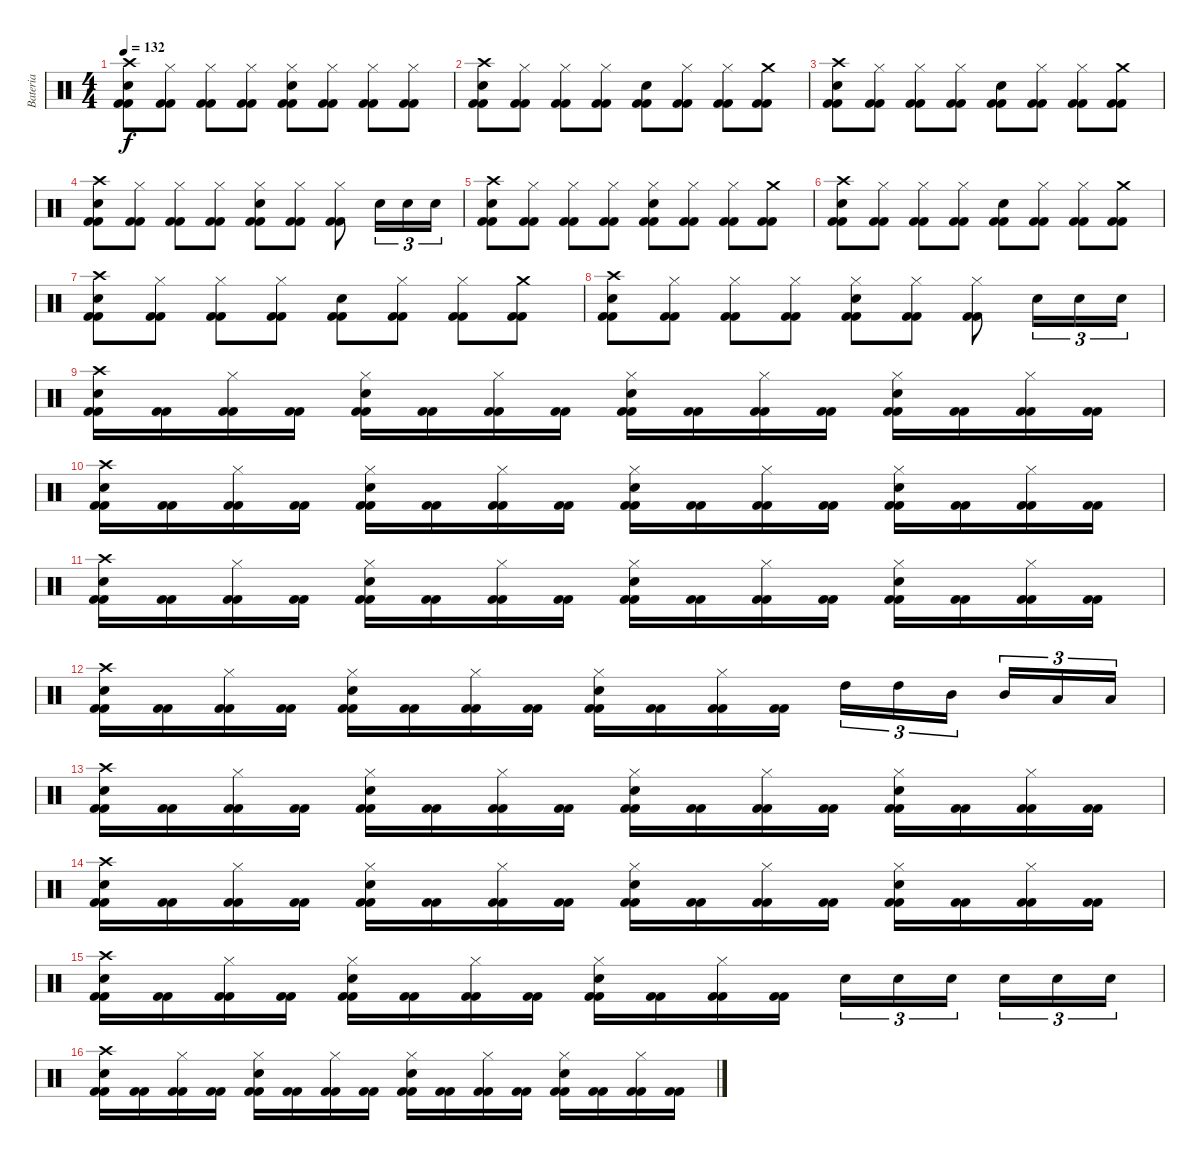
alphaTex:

\track ("Bateria" "Bateria") {instrument percussion}
\staff {score}
\articulation defaults
\ts (4 4)
\tempo 132
\clef neutral
\ks c
("Kick (hit) 2" "Kick (hit) 2" "Snare (hit) 2" "Crash high (hit)").8{dy f} ("Kick (hit) 2" "Kick (hit) 2" "Hi-Hat (closed)").8 ("Kick (hit) 2" "Kick (hit) 2" "Hi-Hat (closed)").8 ("Kick (hit) 2" "Kick (hit) 2" "Hi-Hat (closed)").8 ("Kick (hit) 2" "Kick (hit) 2" "Hi-Hat (closed)" "Snare (hit) 2").8 ("Kick (hit) 2" "Kick (hit) 2" "Hi-Hat (closed)").8 ("Kick (hit) 2" "Kick (hit) 2" "Hi-Hat (closed)").8 ("Kick (hit) 2" "Kick (hit) 2" "Hi-Hat (closed)").8 |
("Kick (hit) 2" "Kick (hit) 2" "Snare (hit) 2" "Crash high (hit)").8 ("Kick (hit) 2" "Kick (hit) 2" "Hi-Hat (closed)").8 ("Kick (hit) 2" "Kick (hit) 2" "Hi-Hat (closed)").8 ("Kick (hit) 2" "Kick (hit) 2" "Hi-Hat (closed)").8 ("Kick (hit) 2" "Kick (hit) 2" "Snare (hit) 2").8 ("Kick (hit) 2" "Kick (hit) 2" "Hi-Hat (closed)").8 ("Kick (hit) 2" "Kick (hit) 2" "Hi-Hat (closed)").8 ("Kick (hit) 2" "Kick (hit) 2" "Crash medium (hit)").8 |
("Kick (hit) 2" "Kick (hit) 2" "Snare (hit) 2" "Crash high (hit)").8 ("Kick (hit) 2" "Kick (hit) 2" "Hi-Hat (closed)").8 ("Kick (hit) 2" "Kick (hit) 2" "Hi-Hat (closed)").8 ("Kick (hit) 2" "Kick (hit) 2" "Hi-Hat (closed)").8 ("Kick (hit) 2" "Kick (hit) 2" "Snare (hit) 2").8 ("Kick (hit) 2" "Kick (hit) 2" "Hi-Hat (closed)").8 ("Kick (hit) 2" "Kick (hit) 2" "Hi-Hat (closed)").8 ("Kick (hit) 2" "Kick (hit) 2" "Crash medium (hit)").8 |
("Kick (hit) 2" "Kick (hit) 2" "Snare (hit) 2" "Crash high (hit)").8 ("Kick (hit) 2" "Kick (hit) 2" "Hi-Hat (closed)").8 ("Kick (hit) 2" "Kick (hit) 2" "Hi-Hat (closed)").8 ("Kick (hit) 2" "Kick (hit) 2" "Hi-Hat (closed)").8 ("Kick (hit) 2" "Kick (hit) 2" "Hi-Hat (closed)" "Snare (hit) 2").8 ("Kick (hit) 2" "Kick (hit) 2" "Hi-Hat (closed)").8 ("Kick (hit) 2" "Kick (hit) 2" "Hi-Hat (closed)").8 "Snare (hit) 2".16{tu (3 2)} "Snare (hit) 2".16{tu (3 2)} "Snare (hit) 2".16{tu (3 2)} |
("Kick (hit) 2" "Kick (hit) 2" "Snare (hit) 2" "Crash high (hit)").8 ("Kick (hit) 2" "Kick (hit) 2" "Hi-Hat (closed)").8 ("Kick (hit) 2" "Kick (hit) 2" "Hi-Hat (closed)").8 ("Kick (hit) 2" "Kick (hit) 2" "Hi-Hat (closed)").8 ("Kick (hit) 2" "Kick (hit) 2" "Hi-Hat (closed)" "Snare (hit) 2").8 ("Kick (hit) 2" "Kick (hit) 2" "Hi-Hat (closed)").8 ("Kick (hit) 2" "Kick (hit) 2" "Hi-Hat (closed)").8 ("Kick (hit) 2" "Kick (hit) 2" "Crash medium (hit)").8 |
("Kick (hit) 2" "Kick (hit) 2" "Snare (hit) 2" "Crash high (hit)").8 ("Kick (hit) 2" "Kick (hit) 2" "Hi-Hat (closed)").8 ("Kick (hit) 2" "Kick (hit) 2" "Hi-Hat (closed)").8 ("Kick (hit) 2" "Kick (hit) 2" "Hi-Hat (closed)").8 ("Kick (hit) 2" "Kick (hit) 2" "Snare (hit) 2").8 ("Kick (hit) 2" "Kick (hit) 2" "Hi-Hat (closed)").8 ("Kick (hit) 2" "Kick (hit) 2" "Hi-Hat (closed)").8 ("Kick (hit) 2" "Kick (hit) 2" "Crash medium (hit)").8 |
("Kick (hit) 2" "Kick (hit) 2" "Snare (hit) 2" "Crash high (hit)").8 ("Kick (hit) 2" "Kick (hit) 2" "Hi-Hat (closed)").8 ("Kick (hit) 2" "Kick (hit) 2" "Hi-Hat (closed)").8 ("Kick (hit) 2" "Kick (hit) 2" "Hi-Hat (closed)").8 ("Kick (hit) 2" "Kick (hit) 2" "Snare (hit) 2").8 ("Kick (hit) 2" "Kick (hit) 2" "Hi-Hat (closed)").8 ("Kick (hit) 2" "Kick (hit) 2" "Hi-Hat (closed)").8 ("Kick (hit) 2" "Kick (hit) 2" "Crash medium (hit)").8 |
("Kick (hit) 2" "Kick (hit) 2" "Snare (hit) 2" "Crash high (hit)").8 ("Kick (hit) 2" "Kick (hit) 2" "Hi-Hat (closed)").8 ("Kick (hit) 2" "Kick (hit) 2" "Hi-Hat (closed)").8 ("Kick (hit) 2" "Kick (hit) 2" "Hi-Hat (closed)").8 ("Kick (hit) 2" "Kick (hit) 2" "Hi-Hat (closed)" "Snare (hit) 2").8 ("Kick (hit) 2" "Kick (hit) 2" "Hi-Hat (closed)").8 ("Kick (hit) 2" "Kick (hit) 2" "Hi-Hat (closed)").8 "Snare (hit) 2".16{tu (3 2)} "Snare (hit) 2".16{tu (3 2)} "Snare (hit) 2".16{tu (3 2)} |
("Kick (hit) 2" "Kick (hit) 2" "Snare (hit) 2" "Crash high (hit)").16 ("Kick (hit) 2" "Kick (hit) 2").16 ("Kick (hit) 2" "Kick (hit) 2" "Hi-Hat (closed)").16 ("Kick (hit) 2" "Kick (hit) 2").16 ("Kick (hit) 2" "Kick (hit) 2" "Snare (hit) 2" "Hi-Hat (closed)").16 ("Kick (hit) 2" "Kick (hit) 2").16 ("Kick (hit) 2" "Kick (hit) 2" "Hi-Hat (closed)").16 ("Kick (hit) 2" "Kick (hit) 2").16 ("Kick (hit) 2" "Kick (hit) 2" "Snare (hit) 2" "Hi-Hat (closed)").16 ("Kick (hit) 2" "Kick (hit) 2").16 ("Kick (hit) 2" "Kick (hit) 2" "Hi-Hat (closed)").16 ("Kick (hit) 2" "Kick (hit) 2").16 ("Kick (hit) 2" "Kick (hit) 2" "Snare (hit) 2" "Hi-Hat (closed)").16 ("Kick (hit) 2" "Kick (hit) 2").16 ("Kick (hit) 2" "Kick (hit) 2" "Hi-Hat (closed)").16 ("Kick (hit) 2" "Kick (hit) 2").16 |
("Kick (hit) 2" "Kick (hit) 2" "Snare (hit) 2" "Crash high (hit)").16 ("Kick (hit) 2" "Kick (hit) 2").16 ("Kick (hit) 2" "Kick (hit) 2" "Hi-Hat (closed)").16 ("Kick (hit) 2" "Kick (hit) 2").16 ("Kick (hit) 2" "Kick (hit) 2" "Snare (hit) 2" "Hi-Hat (closed)").16 ("Kick (hit) 2" "Kick (hit) 2").16 ("Kick (hit) 2" "Kick (hit) 2" "Hi-Hat (closed)").16 ("Kick (hit) 2" "Kick (hit) 2").16 ("Kick (hit) 2" "Kick (hit) 2" "Snare (hit) 2" "Hi-Hat (closed)").16 ("Kick (hit) 2" "Kick (hit) 2").16 ("Kick (hit) 2" "Kick (hit) 2" "Hi-Hat (closed)").16 ("Kick (hit) 2" "Kick (hit) 2").16 ("Kick (hit) 2" "Kick (hit) 2" "Snare (hit) 2" "Hi-Hat (closed)").16 ("Kick (hit) 2" "Kick (hit) 2").16 ("Kick (hit) 2" "Kick (hit) 2" "Hi-Hat (closed)").16 ("Kick (hit) 2" "Kick (hit) 2").16 |
("Kick (hit) 2" "Kick (hit) 2" "Snare (hit) 2" "Crash high (hit)").16 ("Kick (hit) 2" "Kick (hit) 2").16 ("Kick (hit) 2" "Kick (hit) 2" "Hi-Hat (closed)").16 ("Kick (hit) 2" "Kick (hit) 2").16 ("Kick (hit) 2" "Kick (hit) 2" "Snare (hit) 2" "Hi-Hat (closed)").16 ("Kick (hit) 2" "Kick (hit) 2").16 ("Kick (hit) 2" "Kick (hit) 2" "Hi-Hat (closed)").16 ("Kick (hit) 2" "Kick (hit) 2").16 ("Kick (hit) 2" "Kick (hit) 2" "Snare (hit) 2" "Hi-Hat (closed)").16 ("Kick (hit) 2" "Kick (hit) 2").16 ("Kick (hit) 2" "Kick (hit) 2" "Hi-Hat (closed)").16 ("Kick (hit) 2" "Kick (hit) 2").16 ("Kick (hit) 2" "Kick (hit) 2" "Snare (hit) 2" "Hi-Hat (closed)").16 ("Kick (hit) 2" "Kick (hit) 2").16 ("Kick (hit) 2" "Kick (hit) 2" "Hi-Hat (closed)").16 ("Kick (hit) 2" "Kick (hit) 2").16 |
("Kick (hit) 2" "Kick (hit) 2" "Snare (hit) 2" "Crash high (hit)").16 ("Kick (hit) 2" "Kick (hit) 2").16 ("Kick (hit) 2" "Kick (hit) 2" "Hi-Hat (closed)").16 ("Kick (hit) 2" "Kick (hit) 2").16 ("Kick (hit) 2" "Kick (hit) 2" "Snare (hit) 2" "Hi-Hat (closed)").16 ("Kick (hit) 2" "Kick (hit) 2").16 ("Kick (hit) 2" "Kick (hit) 2" "Hi-Hat (closed)").16 ("Kick (hit) 2" "Kick (hit) 2").16 ("Kick (hit) 2" "Kick (hit) 2" "Snare (hit) 2" "Hi-Hat (closed)").16 ("Kick (hit) 2" "Kick (hit) 2").16 ("Kick (hit) 2" "Kick (hit) 2" "Hi-Hat (closed)").16 ("Kick (hit) 2" "Kick (hit) 2").16 "High Tom (hit)".16{tu (3 2)} "High Tom (hit)".16{tu (3 2)} "Mid Tom (hit)".16{tu (3 2)} "Mid Tom (hit)".16{tu (3 2)} "Low Tom (hit)".16{tu (3 2)} "Low Tom (hit)".16{tu (3 2)} |
("Kick (hit) 2" "Kick (hit) 2" "Snare (hit) 2" "Crash high (hit)").16 ("Kick (hit) 2" "Kick (hit) 2").16 ("Kick (hit) 2" "Kick (hit) 2" "Hi-Hat (closed)").16 ("Kick (hit) 2" "Kick (hit) 2").16 ("Kick (hit) 2" "Kick (hit) 2" "Snare (hit) 2" "Hi-Hat (closed)").16 ("Kick (hit) 2" "Kick (hit) 2").16 ("Kick (hit) 2" "Kick (hit) 2" "Hi-Hat (closed)").16 ("Kick (hit) 2" "Kick (hit) 2").16 ("Kick (hit) 2" "Kick (hit) 2" "Snare (hit) 2" "Hi-Hat (closed)").16 ("Kick (hit) 2" "Kick (hit) 2").16 ("Kick (hit) 2" "Kick (hit) 2" "Hi-Hat (closed)").16 ("Kick (hit) 2" "Kick (hit) 2").16 ("Kick (hit) 2" "Kick (hit) 2" "Snare (hit) 2" "Hi-Hat (closed)").16 ("Kick (hit) 2" "Kick (hit) 2").16 ("Kick (hit) 2" "Kick (hit) 2" "Hi-Hat (closed)").16 ("Kick (hit) 2" "Kick (hit) 2").16 |
("Kick (hit) 2" "Kick (hit) 2" "Snare (hit) 2" "Crash high (hit)").16 ("Kick (hit) 2" "Kick (hit) 2").16 ("Kick (hit) 2" "Kick (hit) 2" "Hi-Hat (closed)").16 ("Kick (hit) 2" "Kick (hit) 2").16 ("Kick (hit) 2" "Kick (hit) 2" "Snare (hit) 2" "Hi-Hat (closed)").16 ("Kick (hit) 2" "Kick (hit) 2").16 ("Kick (hit) 2" "Kick (hit) 2" "Hi-Hat (closed)").16 ("Kick (hit) 2" "Kick (hit) 2").16 ("Kick (hit) 2" "Kick (hit) 2" "Snare (hit) 2" "Hi-Hat (closed)").16 ("Kick (hit) 2" "Kick (hit) 2").16 ("Kick (hit) 2" "Kick (hit) 2" "Hi-Hat (closed)").16 ("Kick (hit) 2" "Kick (hit) 2").16 ("Kick (hit) 2" "Kick (hit) 2" "Snare (hit) 2" "Hi-Hat (closed)").16 ("Kick (hit) 2" "Kick (hit) 2").16 ("Kick (hit) 2" "Kick (hit) 2" "Hi-Hat (closed)").16 ("Kick (hit) 2" "Kick (hit) 2").16 |
("Kick (hit) 2" "Kick (hit) 2" "Snare (hit) 2" "Crash high (hit)").16 ("Kick (hit) 2" "Kick (hit) 2").16 ("Kick (hit) 2" "Kick (hit) 2" "Hi-Hat (closed)").16 ("Kick (hit) 2" "Kick (hit) 2").16 ("Kick (hit) 2" "Kick (hit) 2" "Snare (hit) 2" "Hi-Hat (closed)").16 ("Kick (hit) 2" "Kick (hit) 2").16 ("Kick (hit) 2" "Kick (hit) 2" "Hi-Hat (closed)").16 ("Kick (hit) 2" "Kick (hit) 2").16 ("Kick (hit) 2" "Kick (hit) 2" "Snare (hit) 2" "Hi-Hat (closed)").16 ("Kick (hit) 2" "Kick (hit) 2").16 ("Kick (hit) 2" "Kick (hit) 2" "Hi-Hat (closed)").16 ("Kick (hit) 2" "Kick (hit) 2").16 "Snare (hit) 2".16{tu (3 2)} "Snare (hit) 2".16{tu (3 2)} "Snare (hit) 2".16{tu (3 2)} "Snare (hit) 2".16{tu (3 2)} "Snare (hit) 2".16{tu (3 2)} "Snare (hit) 2".16{tu (3 2)} |
("Kick (hit) 2" "Kick (hit) 2" "Snare (hit) 2" "Crash high (hit)").16 ("Kick (hit) 2" "Kick (hit) 2").16 ("Kick (hit) 2" "Kick (hit) 2" "Hi-Hat (closed)").16 ("Kick (hit) 2" "Kick (hit) 2").16 ("Kick (hit) 2" "Kick (hit) 2" "Snare (hit) 2" "Hi-Hat (closed)").16 ("Kick (hit) 2" "Kick (hit) 2").16 ("Kick (hit) 2" "Kick (hit) 2" "Hi-Hat (closed)").16 ("Kick (hit) 2" "Kick (hit) 2").16 ("Kick (hit) 2" "Kick (hit) 2" "Snare (hit) 2" "Hi-Hat (closed)").16 ("Kick (hit) 2" "Kick (hit) 2").16 ("Kick (hit) 2" "Kick (hit) 2" "Hi-Hat (closed)").16 ("Kick (hit) 2" "Kick (hit) 2").16 ("Kick (hit) 2" "Kick (hit) 2" "Snare (hit) 2" "Hi-Hat (closed)").16 ("Kick (hit) 2" "Kick (hit) 2").16 ("Kick (hit) 2" "Kick (hit) 2" "Hi-Hat (closed)").16 ("Kick (hit) 2" "Kick (hit) 2").16
